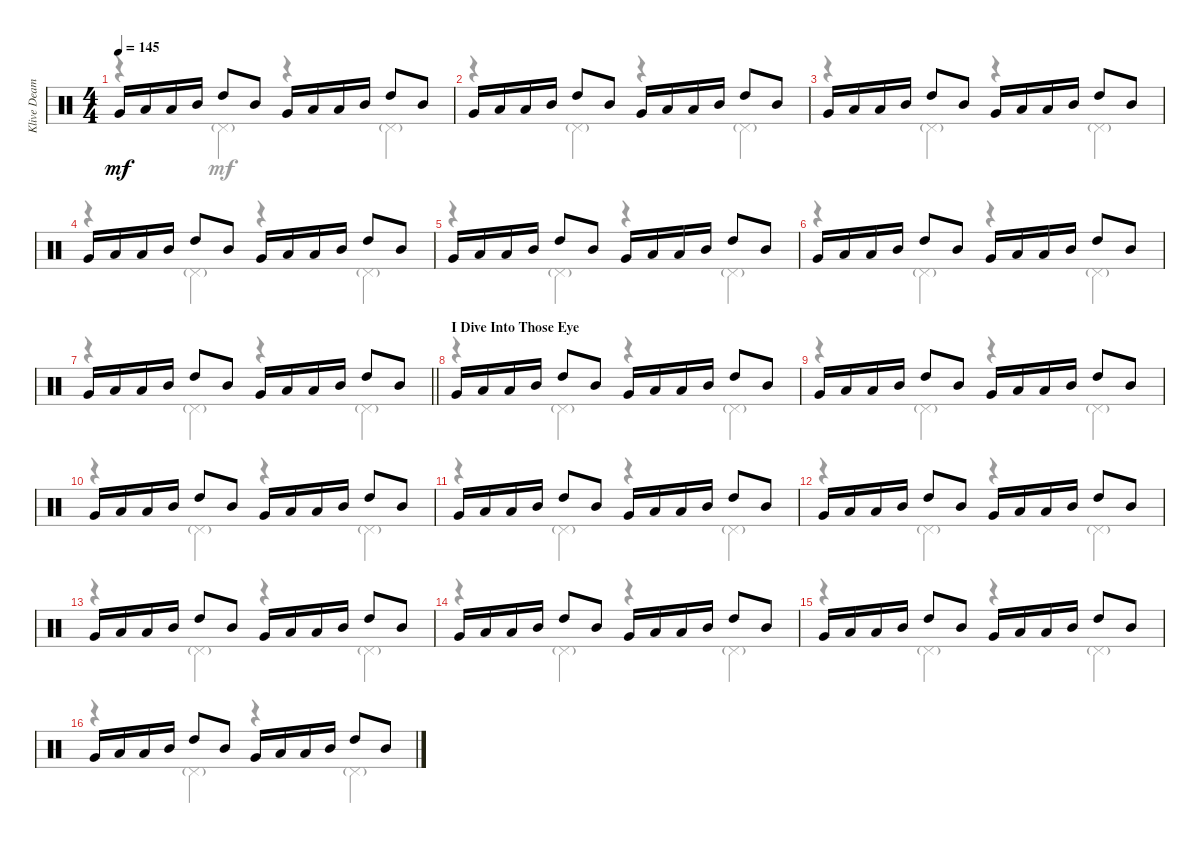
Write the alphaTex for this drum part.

\track ("Klive Deamer" "Klive Deam") {instrument percussion}
\staff {score}
\articulation defaults
\voice
\ts (4 4)
\tempo 145
\clef neutral
\ks c "Very Low Tom (hit)".16{dy mf} "Low Tom (hit)".16 "Low Tom (hit)".16 "Mid Tom (hit)".16 "High Tom (hit)".8 "Mid Tom (hit)".8 "Very Low Tom (hit)".16 "Low Tom (hit)".16 "Low Tom (hit)".16 "Mid Tom (hit)".16 "High Tom (hit)".8 "Mid Tom (hit)".8
|
"Very Low Tom (hit)".16 "Low Tom (hit)".16 "Low Tom (hit)".16 "Mid Tom (hit)".16 "High Tom (hit)".8 "Mid Tom (hit)".8 "Very Low Tom (hit)".16 "Low Tom (hit)".16 "Low Tom (hit)".16 "Mid Tom (hit)".16 "High Tom (hit)".8 "Mid Tom (hit)".8 |
"Very Low Tom (hit)".16 "Low Tom (hit)".16 "Low Tom (hit)".16 "Mid Tom (hit)".16 "High Tom (hit)".8 "Mid Tom (hit)".8 "Very Low Tom (hit)".16 "Low Tom (hit)".16 "Low Tom (hit)".16 "Mid Tom (hit)".16 "High Tom (hit)".8 "Mid Tom (hit)".8 |
"Very Low Tom (hit)".16 "Low Tom (hit)".16 "Low Tom (hit)".16 "Mid Tom (hit)".16 "High Tom (hit)".8 "Mid Tom (hit)".8 "Very Low Tom (hit)".16 "Low Tom (hit)".16 "Low Tom (hit)".16 "Mid Tom (hit)".16 "High Tom (hit)".8 "Mid Tom (hit)".8 |
"Very Low Tom (hit)".16 "Low Tom (hit)".16 "Low Tom (hit)".16 "Mid Tom (hit)".16 "High Tom (hit)".8 "Mid Tom (hit)".8 "Very Low Tom (hit)".16 "Low Tom (hit)".16 "Low Tom (hit)".16 "Mid Tom (hit)".16 "High Tom (hit)".8 "Mid Tom (hit)".8 |
"Very Low Tom (hit)".16 "Low Tom (hit)".16 "Low Tom (hit)".16 "Mid Tom (hit)".16 "High Tom (hit)".8 "Mid Tom (hit)".8 "Very Low Tom (hit)".16 "Low Tom (hit)".16 "Low Tom (hit)".16 "Mid Tom (hit)".16 "High Tom (hit)".8 "Mid Tom (hit)".8 |
\barLineRight lightlight "Very Low Tom (hit)".16 "Low Tom (hit)".16 "Low Tom (hit)".16 "Mid Tom (hit)".16 "High Tom (hit)".8 "Mid Tom (hit)".8 "Very Low Tom (hit)".16 "Low Tom (hit)".16 "Low Tom (hit)".16 "Mid Tom (hit)".16 "High Tom (hit)".8 "Mid Tom (hit)".8
|
\section ("" "I Dive Into Those Eye")
"Very Low Tom (hit)".16 "Low Tom (hit)".16 "Low Tom (hit)".16 "Mid Tom (hit)".16 "High Tom (hit)".8 "Mid Tom (hit)".8 "Very Low Tom (hit)".16 "Low Tom (hit)".16 "Low Tom (hit)".16 "Mid Tom (hit)".16 "High Tom (hit)".8 "Mid Tom (hit)".8 |
"Very Low Tom (hit)".16 "Low Tom (hit)".16 "Low Tom (hit)".16 "Mid Tom (hit)".16 "High Tom (hit)".8 "Mid Tom (hit)".8 "Very Low Tom (hit)".16 "Low Tom (hit)".16 "Low Tom (hit)".16 "Mid Tom (hit)".16 "High Tom (hit)".8 "Mid Tom (hit)".8 |
"Very Low Tom (hit)".16 "Low Tom (hit)".16 "Low Tom (hit)".16 "Mid Tom (hit)".16 "High Tom (hit)".8 "Mid Tom (hit)".8 "Very Low Tom (hit)".16 "Low Tom (hit)".16 "Low Tom (hit)".16 "Mid Tom (hit)".16 "High Tom (hit)".8 "Mid Tom (hit)".8 |
"Very Low Tom (hit)".16 "Low Tom (hit)".16 "Low Tom (hit)".16 "Mid Tom (hit)".16 "High Tom (hit)".8 "Mid Tom (hit)".8 "Very Low Tom (hit)".16 "Low Tom (hit)".16 "Low Tom (hit)".16 "Mid Tom (hit)".16 "High Tom (hit)".8 "Mid Tom (hit)".8 |
"Very Low Tom (hit)".16 "Low Tom (hit)".16 "Low Tom (hit)".16 "Mid Tom (hit)".16 "High Tom (hit)".8 "Mid Tom (hit)".8 "Very Low Tom (hit)".16 "Low Tom (hit)".16 "Low Tom (hit)".16 "Mid Tom (hit)".16 "High Tom (hit)".8 "Mid Tom (hit)".8 |
"Very Low Tom (hit)".16 "Low Tom (hit)".16 "Low Tom (hit)".16 "Mid Tom (hit)".16 "High Tom (hit)".8 "Mid Tom (hit)".8 "Very Low Tom (hit)".16 "Low Tom (hit)".16 "Low Tom (hit)".16 "Mid Tom (hit)".16 "High Tom (hit)".8 "Mid Tom (hit)".8 |
"Very Low Tom (hit)".16 "Low Tom (hit)".16 "Low Tom (hit)".16 "Mid Tom (hit)".16 "High Tom (hit)".8 "Mid Tom (hit)".8 "Very Low Tom (hit)".16 "Low Tom (hit)".16 "Low Tom (hit)".16 "Mid Tom (hit)".16 "High Tom (hit)".8 "Mid Tom (hit)".8 |
"Very Low Tom (hit)".16 "Low Tom (hit)".16 "Low Tom (hit)".16 "Mid Tom (hit)".16 "High Tom (hit)".8 "Mid Tom (hit)".8 "Very Low Tom (hit)".16 "Low Tom (hit)".16 "Low Tom (hit)".16 "Mid Tom (hit)".16 "High Tom (hit)".8 "Mid Tom (hit)".8 |
"Very Low Tom (hit)".16 "Low Tom (hit)".16 "Low Tom (hit)".16 "Mid Tom (hit)".16 "High Tom (hit)".8 "Mid Tom (hit)".8 "Very Low Tom (hit)".16 "Low Tom (hit)".16 "Low Tom (hit)".16 "Mid Tom (hit)".16 "High Tom (hit)".8 "Mid Tom (hit)".8
\voice
\clef neutral
\ottava regular
\simile none
\ks c
r.4{dy mf} "Pedal Hi-Hat (hit)"{g}.4 r.4 "Pedal Hi-Hat (hit)"{g}.4 |
r.4 "Pedal Hi-Hat (hit)"{g}.4 r.4 "Pedal Hi-Hat (hit)"{g}.4 |
r.4 "Pedal Hi-Hat (hit)"{g}.4 r.4 "Pedal Hi-Hat (hit)"{g}.4 |
r.4 "Pedal Hi-Hat (hit)"{g}.4 r.4 "Pedal Hi-Hat (hit)"{g}.4 |
r.4 "Pedal Hi-Hat (hit)"{g}.4 r.4 "Pedal Hi-Hat (hit)"{g}.4 |
r.4 "Pedal Hi-Hat (hit)"{g}.4 r.4 "Pedal Hi-Hat (hit)"{g}.4 |
\barLineRight lightlight
r.4 "Pedal Hi-Hat (hit)"{g}.4 r.4 "Pedal Hi-Hat (hit)"{g}.4 |
r.4 "Pedal Hi-Hat (hit)"{g}.4 r.4 "Pedal Hi-Hat (hit)"{g}.4 |
r.4 "Pedal Hi-Hat (hit)"{g}.4 r.4 "Pedal Hi-Hat (hit)"{g}.4 |
r.4 "Pedal Hi-Hat (hit)"{g}.4 r.4 "Pedal Hi-Hat (hit)"{g}.4 |
r.4 "Pedal Hi-Hat (hit)"{g}.4 r.4 "Pedal Hi-Hat (hit)"{g}.4 |
r.4 "Pedal Hi-Hat (hit)"{g}.4 r.4 "Pedal Hi-Hat (hit)"{g}.4 |
r.4 "Pedal Hi-Hat (hit)"{g}.4 r.4 "Pedal Hi-Hat (hit)"{g}.4 |
r.4 "Pedal Hi-Hat (hit)"{g}.4 r.4 "Pedal Hi-Hat (hit)"{g}.4 |
r.4 "Pedal Hi-Hat (hit)"{g}.4 r.4 "Pedal Hi-Hat (hit)"{g}.4 |
r.4 "Pedal Hi-Hat (hit)"{g}.4 r.4 "Pedal Hi-Hat (hit)"{g}.4
